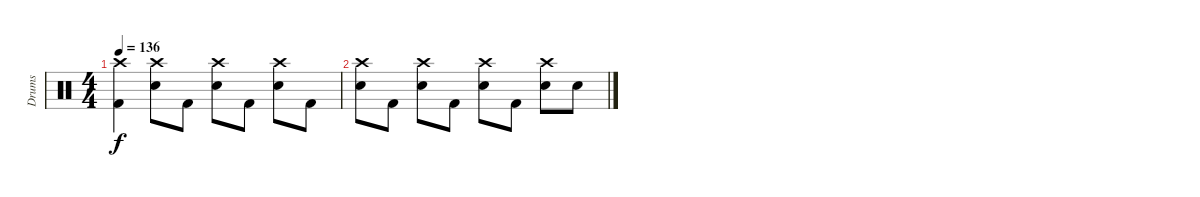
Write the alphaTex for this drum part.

\track ("Drums" "Drums") {instrument percussion}
\staff {score}
\articulation defaults
\ts (4 4)
\tempo 136
\clef neutral
\ks c
("Crash high (hit)" "Kick (hit) 2").4{dy f} ("Crash high (hit)" "Snare (hit) 2").8 "Kick (hit) 2".8 ("Crash high (hit)" "Snare (hit) 2").8 "Kick (hit) 2".8 ("Crash high (hit)" "Snare (hit) 2").8 "Kick (hit) 2".8 |
("Crash high (hit)" "Snare (hit) 2").8 "Kick (hit) 2".8 ("Crash high (hit)" "Snare (hit) 2").8 "Kick (hit) 2".8 ("Crash high (hit)" "Snare (hit) 2").8 "Kick (hit) 2".8 ("Crash high (hit)" "Snare (hit) 2").8 "Snare (hit) 2".8
